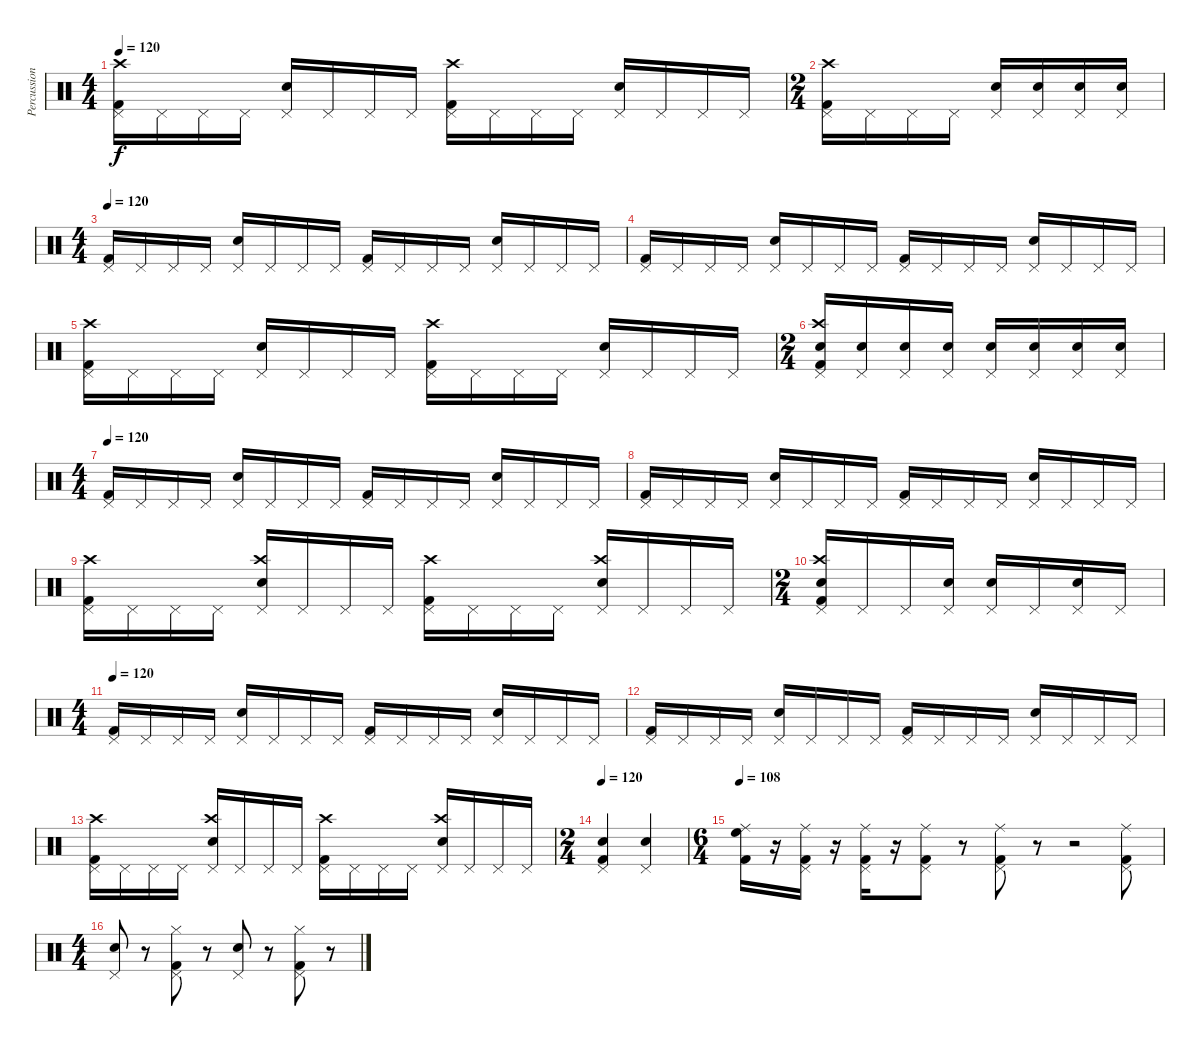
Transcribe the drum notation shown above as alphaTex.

\track ("Percussion" "Percussion") {instrument percussion}
\staff {score}
\articulation defaults
\ts (4 4)
\tempo 120
\clef neutral
\ks c
("Kick (hit) 2" "Pedal Hi-Hat (hit)" "Crash high (hit)").16{dy f} "Pedal Hi-Hat (hit)".16 "Pedal Hi-Hat (hit)".16 "Pedal Hi-Hat (hit)".16 ("Pedal Hi-Hat (hit)" "Electric Snare (hit)").16 "Pedal Hi-Hat (hit)".16 "Pedal Hi-Hat (hit)".16 "Pedal Hi-Hat (hit)".16 ("Kick (hit) 2" "Pedal Hi-Hat (hit)" "Crash high (hit)").16 "Pedal Hi-Hat (hit)".16 "Pedal Hi-Hat (hit)".16 "Pedal Hi-Hat (hit)".16 ("Pedal Hi-Hat (hit)" "Electric Snare (hit)").16 "Pedal Hi-Hat (hit)".16 "Pedal Hi-Hat (hit)".16 "Pedal Hi-Hat (hit)".16 |
\ts (2 4)
("Kick (hit) 2" "Pedal Hi-Hat (hit)" "Crash high (hit)").16 "Pedal Hi-Hat (hit)".16 "Pedal Hi-Hat (hit)".16 "Pedal Hi-Hat (hit)".16 ("Pedal Hi-Hat (hit)" "Electric Snare (hit)").16 ("Pedal Hi-Hat (hit)" "Electric Snare (hit)").16 ("Pedal Hi-Hat (hit)" "Electric Snare (hit)").16 ("Pedal Hi-Hat (hit)" "Electric Snare (hit)").16 |
\ts (4 4)
\tempo 120
("Kick (hit) 2" "Pedal Hi-Hat (hit)").16 "Pedal Hi-Hat (hit)".16 "Pedal Hi-Hat (hit)".16 "Pedal Hi-Hat (hit)".16 ("Pedal Hi-Hat (hit)" "Electric Snare (hit)").16 "Pedal Hi-Hat (hit)".16 "Pedal Hi-Hat (hit)".16 "Pedal Hi-Hat (hit)".16 ("Kick (hit) 2" "Pedal Hi-Hat (hit)").16 "Pedal Hi-Hat (hit)".16 "Pedal Hi-Hat (hit)".16 "Pedal Hi-Hat (hit)".16 ("Pedal Hi-Hat (hit)" "Electric Snare (hit)").16 "Pedal Hi-Hat (hit)".16 "Pedal Hi-Hat (hit)".16 "Pedal Hi-Hat (hit)".16 |
("Kick (hit) 2" "Pedal Hi-Hat (hit)").16 "Pedal Hi-Hat (hit)".16 "Pedal Hi-Hat (hit)".16 "Pedal Hi-Hat (hit)".16 ("Pedal Hi-Hat (hit)" "Electric Snare (hit)").16 "Pedal Hi-Hat (hit)".16 "Pedal Hi-Hat (hit)".16 "Pedal Hi-Hat (hit)".16 ("Kick (hit) 2" "Pedal Hi-Hat (hit)").16 "Pedal Hi-Hat (hit)".16 "Pedal Hi-Hat (hit)".16 "Pedal Hi-Hat (hit)".16 ("Pedal Hi-Hat (hit)" "Electric Snare (hit)").16 "Pedal Hi-Hat (hit)".16 "Pedal Hi-Hat (hit)".16 "Pedal Hi-Hat (hit)".16 |
("Kick (hit) 2" "Pedal Hi-Hat (hit)" "Crash high (hit)").16 "Pedal Hi-Hat (hit)".16 "Pedal Hi-Hat (hit)".16 "Pedal Hi-Hat (hit)".16 ("Pedal Hi-Hat (hit)" "Electric Snare (hit)").16 "Pedal Hi-Hat (hit)".16 "Pedal Hi-Hat (hit)".16 "Pedal Hi-Hat (hit)".16 ("Kick (hit) 2" "Pedal Hi-Hat (hit)" "Crash high (hit)").16 "Pedal Hi-Hat (hit)".16 "Pedal Hi-Hat (hit)".16 "Pedal Hi-Hat (hit)".16 ("Pedal Hi-Hat (hit)" "Electric Snare (hit)").16 "Pedal Hi-Hat (hit)".16 "Pedal Hi-Hat (hit)".16 "Pedal Hi-Hat (hit)".16 |
\ts (2 4)
("Kick (hit) 2" "Pedal Hi-Hat (hit)" "Electric Snare (hit)" "Crash high (hit)").16 ("Pedal Hi-Hat (hit)" "Electric Snare (hit)").16 ("Pedal Hi-Hat (hit)" "Electric Snare (hit)").16 ("Pedal Hi-Hat (hit)" "Electric Snare (hit)").16 ("Pedal Hi-Hat (hit)" "Electric Snare (hit)").16 ("Pedal Hi-Hat (hit)" "Electric Snare (hit)").16 ("Pedal Hi-Hat (hit)" "Electric Snare (hit)").16 ("Pedal Hi-Hat (hit)" "Electric Snare (hit)").16 |
\ts (4 4)
\tempo 120
("Kick (hit) 2" "Pedal Hi-Hat (hit)").16 "Pedal Hi-Hat (hit)".16 "Pedal Hi-Hat (hit)".16 "Pedal Hi-Hat (hit)".16 ("Pedal Hi-Hat (hit)" "Electric Snare (hit)").16 "Pedal Hi-Hat (hit)".16 "Pedal Hi-Hat (hit)".16 "Pedal Hi-Hat (hit)".16 ("Kick (hit) 2" "Pedal Hi-Hat (hit)").16 "Pedal Hi-Hat (hit)".16 "Pedal Hi-Hat (hit)".16 "Pedal Hi-Hat (hit)".16 ("Pedal Hi-Hat (hit)" "Electric Snare (hit)").16 "Pedal Hi-Hat (hit)".16 "Pedal Hi-Hat (hit)".16 "Pedal Hi-Hat (hit)".16 |
("Kick (hit) 2" "Pedal Hi-Hat (hit)").16 "Pedal Hi-Hat (hit)".16 "Pedal Hi-Hat (hit)".16 "Pedal Hi-Hat (hit)".16 ("Pedal Hi-Hat (hit)" "Electric Snare (hit)").16 "Pedal Hi-Hat (hit)".16 "Pedal Hi-Hat (hit)".16 "Pedal Hi-Hat (hit)".16 ("Kick (hit) 2" "Pedal Hi-Hat (hit)").16 "Pedal Hi-Hat (hit)".16 "Pedal Hi-Hat (hit)".16 "Pedal Hi-Hat (hit)".16 ("Pedal Hi-Hat (hit)" "Electric Snare (hit)").16 "Pedal Hi-Hat (hit)".16 "Pedal Hi-Hat (hit)".16 "Pedal Hi-Hat (hit)".16 |
("Kick (hit) 2" "Pedal Hi-Hat (hit)" "Crash high (hit)").16 "Pedal Hi-Hat (hit)".16 "Pedal Hi-Hat (hit)".16 "Pedal Hi-Hat (hit)".16 ("Pedal Hi-Hat (hit)" "Electric Snare (hit)" "Crash high (hit)").16 "Pedal Hi-Hat (hit)".16 "Pedal Hi-Hat (hit)".16 "Pedal Hi-Hat (hit)".16 ("Kick (hit) 2" "Pedal Hi-Hat (hit)" "Crash high (hit)").16 "Pedal Hi-Hat (hit)".16 "Pedal Hi-Hat (hit)".16 "Pedal Hi-Hat (hit)".16 ("Pedal Hi-Hat (hit)" "Electric Snare (hit)" "Crash high (hit)").16 "Pedal Hi-Hat (hit)".16 "Pedal Hi-Hat (hit)".16 "Pedal Hi-Hat (hit)".16 |
\ts (2 4)
("Kick (hit) 2" "Pedal Hi-Hat (hit)" "Electric Snare (hit)" "Crash high (hit)").16 "Pedal Hi-Hat (hit)".16 "Pedal Hi-Hat (hit)".16 ("Pedal Hi-Hat (hit)" "Electric Snare (hit)").16 ("Pedal Hi-Hat (hit)" "Electric Snare (hit)").16 "Pedal Hi-Hat (hit)".16 ("Pedal Hi-Hat (hit)" "Electric Snare (hit)").16 "Pedal Hi-Hat (hit)".16 |
\ts (4 4)
\tempo 120
("Kick (hit) 2" "Pedal Hi-Hat (hit)").16 "Pedal Hi-Hat (hit)".16 "Pedal Hi-Hat (hit)".16 "Pedal Hi-Hat (hit)".16 ("Pedal Hi-Hat (hit)" "Electric Snare (hit)").16 "Pedal Hi-Hat (hit)".16 "Pedal Hi-Hat (hit)".16 "Pedal Hi-Hat (hit)".16 ("Kick (hit) 2" "Pedal Hi-Hat (hit)").16 "Pedal Hi-Hat (hit)".16 "Pedal Hi-Hat (hit)".16 "Pedal Hi-Hat (hit)".16 ("Pedal Hi-Hat (hit)" "Electric Snare (hit)").16 "Pedal Hi-Hat (hit)".16 "Pedal Hi-Hat (hit)".16 "Pedal Hi-Hat (hit)".16 |
("Kick (hit) 2" "Pedal Hi-Hat (hit)").16 "Pedal Hi-Hat (hit)".16 "Pedal Hi-Hat (hit)".16 "Pedal Hi-Hat (hit)".16 ("Pedal Hi-Hat (hit)" "Electric Snare (hit)").16 "Pedal Hi-Hat (hit)".16 "Pedal Hi-Hat (hit)".16 "Pedal Hi-Hat (hit)".16 ("Kick (hit) 2" "Pedal Hi-Hat (hit)").16 "Pedal Hi-Hat (hit)".16 "Pedal Hi-Hat (hit)".16 "Pedal Hi-Hat (hit)".16 ("Pedal Hi-Hat (hit)" "Electric Snare (hit)").16 "Pedal Hi-Hat (hit)".16 "Pedal Hi-Hat (hit)".16 "Pedal Hi-Hat (hit)".16 |
("Kick (hit) 2" "Pedal Hi-Hat (hit)" "Crash high (hit)").16 "Pedal Hi-Hat (hit)".16 "Pedal Hi-Hat (hit)".16 "Pedal Hi-Hat (hit)".16 ("Pedal Hi-Hat (hit)" "Electric Snare (hit)" "Crash high (hit)").16 "Pedal Hi-Hat (hit)".16 "Pedal Hi-Hat (hit)".16 "Pedal Hi-Hat (hit)".16 ("Kick (hit) 2" "Pedal Hi-Hat (hit)" "Crash high (hit)").16 "Pedal Hi-Hat (hit)".16 "Pedal Hi-Hat (hit)".16 "Pedal Hi-Hat (hit)".16 ("Pedal Hi-Hat (hit)" "Electric Snare (hit)" "Crash high (hit)").16 "Pedal Hi-Hat (hit)".16 "Pedal Hi-Hat (hit)".16 "Pedal Hi-Hat (hit)".16 |
\ts (2 4)
\tempo 120
("Kick (hit) 2" "Pedal Hi-Hat (hit)" "Electric Snare (hit)").4 ("Pedal Hi-Hat (hit)" "Electric Snare (hit)").4 |
\ts (6 4)
\tempo 108
("Kick (hit) 2" "High Floor Tom (hit)" "Ride (middle)").16 r.16 ("Kick (hit) 2" "Pedal Hi-Hat (hit)" "Ride (middle)").16 r.16 ("Kick (hit) 2" "Pedal Hi-Hat (hit)" "Ride (middle)").16 r.16 ("Kick (hit) 2" "Pedal Hi-Hat (hit)" "Ride (middle)").8 r.8 ("Kick (hit) 2" "Pedal Hi-Hat (hit)" "Ride (middle)").8 r.8 r.2 ("Kick (hit) 2" "Pedal Hi-Hat (hit)" "Ride (middle)").8 |
\ts (4 4)
("Pedal Hi-Hat (hit)" "Electric Snare (hit)").8 r.8 ("Kick (hit) 2" "Pedal Hi-Hat (hit)" "Hi-Hat (closed)").8 r.8 ("Pedal Hi-Hat (hit)" "Electric Snare (hit)").8 r.8 ("Kick (hit) 2" "Pedal Hi-Hat (hit)" "Hi-Hat (closed)").8 r.8
